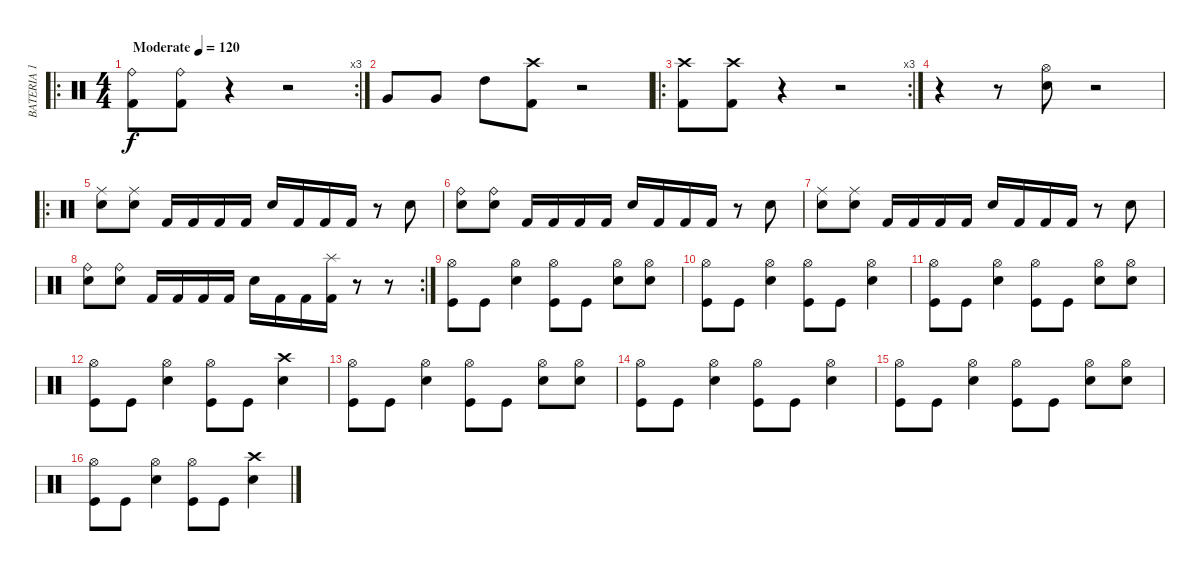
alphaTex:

\track ("BATERIA 1" "BATERIA 1") {instrument percussion}
\staff {score}
\articulation defaults
\ro
\rc 3
\ts (4 4)
\tempo (120 "Moderate")
\clef neutral
\ks c
("Ride (bell)" "Kick (hit) 2").8{dy f} ("Ride (bell)" "Kick (hit) 2").8 r.4 r.2 |
"Very Low Tom (hit)".8 "Very Low Tom (hit)".8 "High Tom (hit)".8 ("Crash high (hit)" "Kick (hit) 2").8 r.2 |
\ro
\rc 3
("Crash high (hit)" "Kick (hit) 2").8 ("Crash high (hit)" "Kick (hit) 2").8 r.4 r.2 |
r.4 r.8 ("Hi-Hat (open)" "Snare (hit) 2").8 r.2 |
\ro
("Ride (middle)" "Snare (hit) 2").8 ("Ride (middle)" "Snare (hit) 2").8 "Kick (hit) 2".16 "Kick (hit) 2".16 "Kick (hit) 2".16 "Kick (hit) 2".16 "Snare (hit) 2".16 "Kick (hit) 2".16 "Kick (hit) 2".16 "Kick (hit) 2".16 r.8 "Snare (hit) 2".8 |
("Ride (bell)" "Snare (hit) 2").8 ("Ride (bell)" "Snare (hit) 2").8 "Kick (hit) 2".16 "Kick (hit) 2".16 "Kick (hit) 2".16 "Kick (hit) 2".16 "Snare (hit) 2".16 "Kick (hit) 2".16 "Kick (hit) 2".16 "Kick (hit) 2".16 r.8 "Snare (hit) 2".8 |
("Ride (middle)" "Snare (hit) 2").8 ("Ride (middle)" "Snare (hit) 2").8 "Kick (hit) 2".16 "Kick (hit) 2".16 "Kick (hit) 2".16 "Kick (hit) 2".16 "Snare (hit) 2".16 "Kick (hit) 2".16 "Kick (hit) 2".16 "Kick (hit) 2".16 r.8 "Snare (hit) 2".8 |
\rc 2
("Ride (bell)" "Snare (hit) 2").8 ("Ride (bell)" "Snare (hit) 2").8 "Kick (hit) 2".16 "Kick (hit) 2".16 "Kick (hit) 2".16 "Kick (hit) 2".16 "Snare (hit) 2".16 "Kick (hit) 2".16 "Kick (hit) 2".16 ("Splash (hit)" "Kick (hit) 2").16 r.8 r.8 |
("Hi-Hat (open)" "Kick (hit)").8 "Kick (hit)".8 ("Hi-Hat (open)" "Snare (hit) 2").4 ("Hi-Hat (open)" "Kick (hit)").8 "Kick (hit)".8 ("Hi-Hat (open)" "Snare (hit) 2").8 ("Hi-Hat (open)" "Snare (hit) 2").8 |
("Hi-Hat (open)" "Kick (hit)").8 "Kick (hit)".8 ("Hi-Hat (open)" "Snare (hit) 2").4 ("Hi-Hat (open)" "Kick (hit)").8 "Kick (hit)".8 ("Hi-Hat (open)" "Snare (hit) 2").4 |
("Hi-Hat (open)" "Kick (hit)").8 "Kick (hit)".8 ("Hi-Hat (open)" "Snare (hit) 2").4 ("Hi-Hat (open)" "Kick (hit)").8 "Kick (hit)".8 ("Hi-Hat (open)" "Snare (hit) 2").8 ("Hi-Hat (open)" "Snare (hit) 2").8 |
("Hi-Hat (open)" "Kick (hit)").8 "Kick (hit)".8 ("Hi-Hat (open)" "Snare (hit) 2").4 ("Hi-Hat (open)" "Kick (hit)").8 "Kick (hit)".8 ("Crash high (hit)" "Snare (hit) 2").4 |
("Hi-Hat (open)" "Kick (hit)").8 "Kick (hit)".8 ("Hi-Hat (open)" "Snare (hit) 2").4 ("Hi-Hat (open)" "Kick (hit)").8 "Kick (hit)".8 ("Hi-Hat (open)" "Snare (hit) 2").8 ("Hi-Hat (open)" "Snare (hit) 2").8 |
("Hi-Hat (open)" "Kick (hit)").8 "Kick (hit)".8 ("Hi-Hat (open)" "Snare (hit) 2").4 ("Hi-Hat (open)" "Kick (hit)").8 "Kick (hit)".8 ("Hi-Hat (open)" "Snare (hit) 2").4 |
("Hi-Hat (open)" "Kick (hit)").8 "Kick (hit)".8 ("Hi-Hat (open)" "Snare (hit) 2").4 ("Hi-Hat (open)" "Kick (hit)").8 "Kick (hit)".8 ("Hi-Hat (open)" "Snare (hit) 2").8 ("Hi-Hat (open)" "Snare (hit) 2").8 |
("Hi-Hat (open)" "Kick (hit)").8 "Kick (hit)".8 ("Hi-Hat (open)" "Snare (hit) 2").4 ("Hi-Hat (open)" "Kick (hit)").8 "Kick (hit)".8 ("Crash high (hit)" "Snare (hit) 2").4
